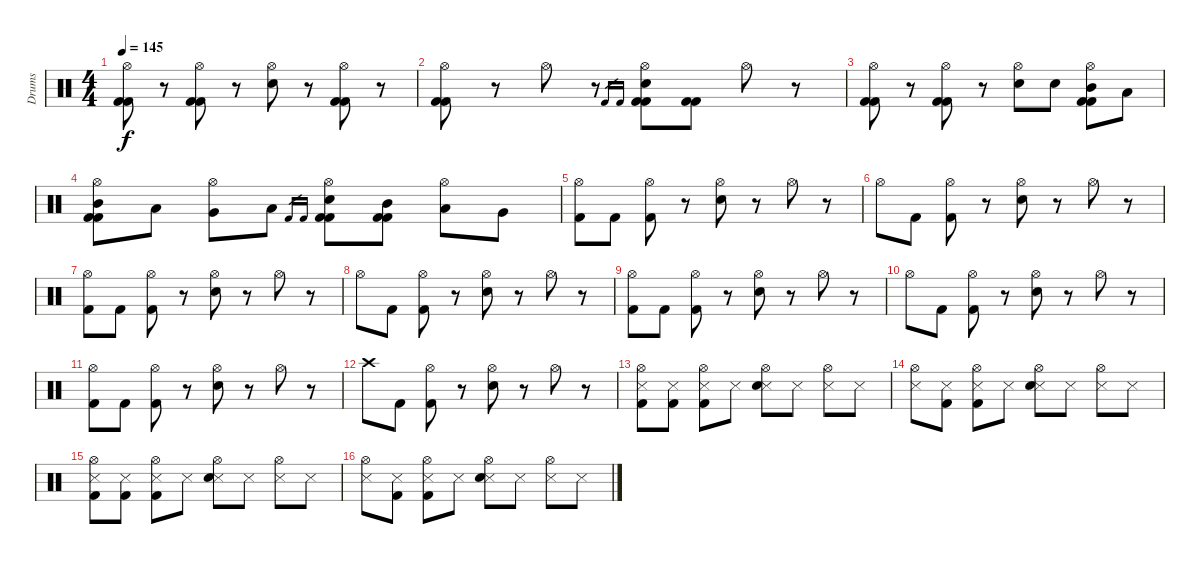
\track ("Drums" "Drums") {instrument percussion}
\staff {score}
\articulation defaults
\ts (4 4)
\tempo 145
\clef neutral
\ks c
("Hi-Hat (open)" "Kick (hit) 2" "Kick (hit) 2").8{dy f} r.8 ("Hi-Hat (open)" "Kick (hit) 2" "Kick (hit) 2").8 r.8 ("Hi-Hat (open)" "Electric Snare (hit)").8 r.8 ("Hi-Hat (open)" "Kick (hit) 2" "Kick (hit) 2").8 r.8 |
("Hi-Hat (open)" "Kick (hit) 2" "Kick (hit) 2").8 r.8 "Hi-Hat (open)".8 r.8 "Kick (hit) 2".16{gr} "Kick (hit) 2".16{gr} ("Hi-Hat (open)" "Electric Snare (hit)" "Kick (hit) 2" "Kick (hit) 2").8 ("Kick (hit) 2" "Kick (hit) 2").8 "Hi-Hat (open)".8 r.8 |
("Hi-Hat (open)" "Kick (hit) 2" "Kick (hit) 2").8 r.8 ("Hi-Hat (open)" "Kick (hit) 2" "Kick (hit) 2").8 r.8 ("Hi-Hat (open)" "Electric Snare (hit)").8 "Snare (hit) 2".8 ("Hi-Hat (open)" "Mid Tom (hit)" "Kick (hit) 2" "Kick (hit) 2").8 "Low Tom (hit)".8 |
("Hi-Hat (open)" "Mid Tom (hit)" "Kick (hit) 2" "Kick (hit) 2").8 "Low Tom (hit)".8 ("Hi-Hat (open)" "Very Low Tom (hit)").8 "Low Floor Tom (hit)".8 "Kick (hit) 2".16{gr} "Kick (hit) 2".16{gr} ("Hi-Hat (open)" "Electric Snare (hit)" "Kick (hit) 2" "Kick (hit) 2").8 ("Mid Tom (hit)" "Kick (hit) 2" "Kick (hit) 2").8 ("Hi-Hat (open)" "Low Tom (hit)").8 "Very Low Tom (hit)".8 |
("Hi-Hat (open)" "Kick (hit) 2").8 "Kick (hit) 2".8 ("Hi-Hat (open)" "Kick (hit) 2").8 r.8 ("Hi-Hat (open)" "Snare (hit) 2").8 r.8 "Hi-Hat (open)".8 r.8 |
"Hi-Hat (open)".8 "Kick (hit) 2".8 ("Hi-Hat (open)" "Kick (hit) 2").8 r.8 ("Hi-Hat (open)" "Snare (hit) 2").8 r.8 "Hi-Hat (open)".8 r.8 |
("Hi-Hat (open)" "Kick (hit) 2").8 "Kick (hit) 2".8 ("Hi-Hat (open)" "Kick (hit) 2").8 r.8 ("Hi-Hat (open)" "Snare (hit) 2").8 r.8 "Hi-Hat (open)".8 r.8 |
"Hi-Hat (open)".8 "Kick (hit) 2".8 ("Hi-Hat (open)" "Kick (hit) 2").8 r.8 ("Hi-Hat (open)" "Snare (hit) 2").8 r.8 "Hi-Hat (open)".8 r.8 |
("Hi-Hat (open)" "Kick (hit) 2").8 "Kick (hit) 2".8 ("Hi-Hat (open)" "Kick (hit) 2").8 r.8 ("Hi-Hat (open)" "Snare (hit) 2").8 r.8 "Hi-Hat (open)".8 r.8 |
"Hi-Hat (open)".8 "Kick (hit) 2".8 ("Hi-Hat (open)" "Kick (hit) 2").8 r.8 ("Hi-Hat (open)" "Snare (hit) 2").8 r.8 "Hi-Hat (open)".8 r.8 |
("Hi-Hat (open)" "Kick (hit) 2").8 "Kick (hit) 2".8 ("Hi-Hat (open)" "Kick (hit) 2").8 r.8 ("Hi-Hat (open)" "Snare (hit) 2").8 r.8 "Hi-Hat (open)".8 r.8 |
"Crash high (hit)".8 "Kick (hit) 2".8 ("Hi-Hat (open)" "Kick (hit) 2").8 r.8 ("Hi-Hat (open)" "Snare (hit) 2").8 r.8 "Hi-Hat (open)".8 r.8 |
("Hi-Hat (open)" "Snare (side stick) 3" "Kick (hit) 2").8 ("Snare (side stick) 3" "Kick (hit) 2").8 ("Hi-Hat (open)" "Snare (side stick) 3" "Kick (hit) 2").8 "Snare (side stick) 3".8 ("Hi-Hat (open)" "Snare (side stick) 3" "Snare (hit) 2").8 "Snare (side stick) 3".8 ("Hi-Hat (open)" "Snare (side stick) 3").8 "Snare (side stick) 3".8 |
("Hi-Hat (open)" "Snare (side stick) 3").8 ("Snare (side stick) 3" "Kick (hit) 2").8 ("Hi-Hat (open)" "Snare (side stick) 3" "Kick (hit) 2").8 "Snare (side stick) 3".8 ("Hi-Hat (open)" "Snare (side stick) 3" "Snare (hit) 2").8 "Snare (side stick) 3".8 ("Hi-Hat (open)" "Snare (side stick) 3").8 "Snare (side stick) 3".8 |
("Hi-Hat (open)" "Snare (side stick) 3" "Kick (hit) 2").8 ("Snare (side stick) 3" "Kick (hit) 2").8 ("Hi-Hat (open)" "Snare (side stick) 3" "Kick (hit) 2").8 "Snare (side stick) 3".8 ("Hi-Hat (open)" "Snare (side stick) 3" "Snare (hit) 2").8 "Snare (side stick) 3".8 ("Hi-Hat (open)" "Snare (side stick) 3").8 "Snare (side stick) 3".8 |
("Hi-Hat (open)" "Snare (side stick) 3").8 ("Snare (side stick) 3" "Kick (hit) 2").8 ("Hi-Hat (open)" "Snare (side stick) 3" "Kick (hit) 2").8 "Snare (side stick) 3".8 ("Hi-Hat (open)" "Snare (side stick) 3" "Snare (hit) 2").8 "Snare (side stick) 3".8 ("Hi-Hat (open)" "Snare (side stick) 3").8 "Snare (side stick) 3".8
